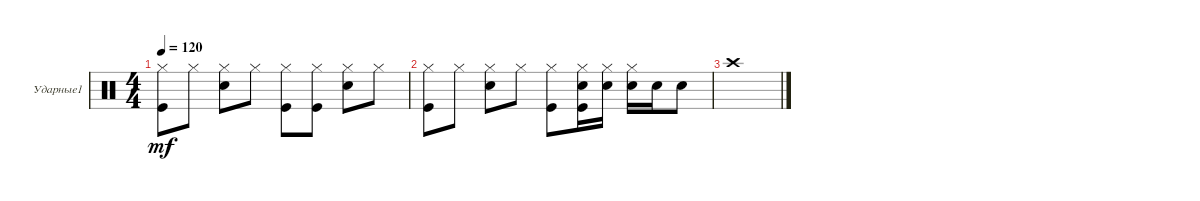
\defaultSystemsLayout 4
\bracketExtendMode groupsimilarinstruments
\firstSystemTrackNameOrientation horizontal
\otherSystemsTrackNameOrientation horizontal
\track ("Е.Кулаков" "Ударные1") {instrument percussion}
\staff {score}
\articulation defaults
\ts (4 4)
\tempo 120
\clef neutral
\ks c
("Hi-Hat (closed)" "Kick (hit)").8{dy mf} "Hi-Hat (closed)".8 ("Hi-Hat (closed)" "Snare (hit) 2").8 "Hi-Hat (closed)".8 ("Hi-Hat (closed)" "Kick (hit)").8 ("Hi-Hat (closed)" "Kick (hit)").8 ("Hi-Hat (closed)" "Snare (hit) 2").8 "Hi-Hat (closed)".8 |
("Hi-Hat (closed)" "Kick (hit)").8 "Hi-Hat (closed)".8 ("Hi-Hat (closed)" "Snare (hit) 2").8 "Hi-Hat (closed)".8 ("Hi-Hat (closed)" "Kick (hit)").8 ("Hi-Hat (closed)" "Kick (hit)" "Snare (hit) 2").16 ("Hi-Hat (closed)" "Snare (hit) 2").16 ("Hi-Hat (closed)" "Snare (hit) 2").16 "Snare (hit) 2".16 "Snare (hit) 2".8 |
"Crash high (hit)".1
